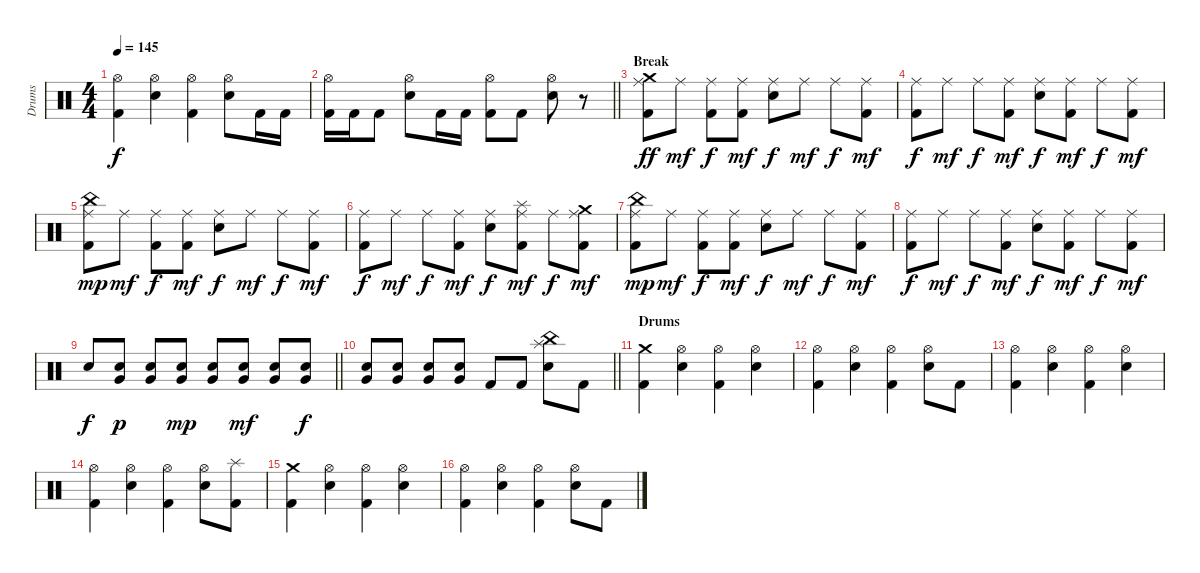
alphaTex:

\track ("Drums" "Drums") {instrument percussion}
\staff {score}
\articulation defaults
\ts (4 4)
\tempo 145
\clef neutral
\ks c
("Hi-Hat (open)" "Kick (hit) 2").4{dy f} ("Hi-Hat (open)" "Electric Snare (hit)").4 ("Hi-Hat (open)" "Kick (hit) 2").4 ("Hi-Hat (open)" "Electric Snare (hit)").8 "Kick (hit) 2".16 "Kick (hit) 2".16 |
\barLineRight lightlight
("Hi-Hat (open)" "Kick (hit) 2").16 "Kick (hit) 2".16 "Kick (hit) 2".8 ("Hi-Hat (open)" "Electric Snare (hit)").8 "Kick (hit) 2".16 "Kick (hit) 2".16 ("Hi-Hat (open)" "Kick (hit) 2").8 "Kick (hit) 2".8 ("Hi-Hat (open)" "Electric Snare (hit)").8 r.8 |
\section ("" "Break")
("Crash medium (hit)" "Ride (middle)" "Kick (hit) 2").8{dy ff} "Ride (middle)".8{dy mf} ("Ride (middle)" "Kick (hit) 2").8{dy f} ("Ride (middle)" "Kick (hit) 2").8{dy mf} ("Ride (middle)" "Electric Snare (hit)").8{dy f} "Ride (middle)".8{dy mf} "Ride (middle)".8{dy f} ("Ride (middle)" "Kick (hit) 2").8{dy mf} |
("Ride (middle)" "Kick (hit) 2").8{dy f} "Ride (middle)".8{dy mf} "Ride (middle)".8{dy f} ("Ride (middle)" "Kick (hit) 2").8{dy mf} ("Ride (middle)" "Electric Snare (hit)").8{dy f} ("Ride (middle)" "Kick (hit) 2").8{dy mf} "Ride (middle)".8{dy f} ("Ride (middle)" "Kick (hit) 2").8{dy mf} |
("China (hit)" "Ride (middle)" "Kick (hit) 2").8{dy mp} "Ride (middle)".8{dy mf} ("Ride (middle)" "Kick (hit) 2").8{dy f} ("Ride (middle)" "Kick (hit) 2").8{dy mf} ("Ride (middle)" "Electric Snare (hit)").8{dy f} "Ride (middle)".8{dy mf} "Ride (middle)".8{dy f} ("Ride (middle)" "Kick (hit) 2").8{dy mf} |
("Ride (middle)" "Kick (hit) 2").8{dy f} "Ride (middle)".8{dy mf} "Ride (middle)".8{dy f} ("Ride (middle)" "Kick (hit) 2").8{dy mf} ("Ride (middle)" "Electric Snare (hit)").8{dy f} ("Splash (hit)" "Ride (middle)" "Kick (hit) 2").8{dy mf} "Ride (middle)".8{dy f} ("Crash medium (hit)" "Ride (middle)" "Kick (hit) 2").8{dy mf} |
("China (hit)" "Ride (middle)" "Kick (hit) 2").8{dy mp} "Ride (middle)".8{dy mf} ("Ride (middle)" "Kick (hit) 2").8{dy f} ("Ride (middle)" "Kick (hit) 2").8{dy mf} ("Ride (middle)" "Electric Snare (hit)").8{dy f} "Ride (middle)".8{dy mf} "Ride (middle)".8{dy f} ("Ride (middle)" "Kick (hit) 2").8{dy mf} |
("Ride (middle)" "Kick (hit) 2").8{dy f} "Ride (middle)".8{dy mf} "Ride (middle)".8{dy f} ("Ride (middle)" "Kick (hit) 2").8{dy mf} ("Ride (middle)" "Electric Snare (hit)").8{dy f} ("Ride (middle)" "Kick (hit) 2").8{dy mf} "Ride (middle)".8{dy f} ("Ride (middle)" "Kick (hit) 2").8{dy mf} |
\barLineRight lightlight "Electric Snare (hit)".8{dy f}
("Very Low Tom (hit)" "Electric Snare (hit)").8{dy p} ("Very Low Tom (hit)" "Electric Snare (hit)").8 ("Very Low Tom (hit)" "Electric Snare (hit)").8{dy mp} ("Very Low Tom (hit)" "Electric Snare (hit)").8 ("Very Low Tom (hit)" "Electric Snare (hit)").8{dy mf} ("Very Low Tom (hit)" "Electric Snare (hit)").8 ("Very Low Tom (hit)" "Electric Snare (hit)").8{dy f} |
\barLineRight lightlight
("Very Low Tom (hit)" "Electric Snare (hit)").8 ("Very Low Tom (hit)" "Electric Snare (hit)").8 ("Very Low Tom (hit)" "Electric Snare (hit)").8 ("Very Low Tom (hit)" "Electric Snare (hit)").8 "Kick (hit) 2".8 "Kick (hit) 2".8 ("Splash (hit)" "China (hit)" "Electric Snare (hit)").8 "Kick (hit) 2".8 |
\section ("" "Drums")
("Crash medium (hit)" "Kick (hit) 2").4 ("Hi-Hat (open)" "Electric Snare (hit)").4 ("Hi-Hat (open)" "Kick (hit) 2").4 ("Hi-Hat (open)" "Electric Snare (hit)").4 |
("Hi-Hat (open)" "Kick (hit) 2").4 ("Hi-Hat (open)" "Electric Snare (hit)").4 ("Hi-Hat (open)" "Kick (hit) 2").4 ("Hi-Hat (open)" "Electric Snare (hit)").8 "Kick (hit) 2".8 |
("Hi-Hat (open)" "Kick (hit) 2").4 ("Hi-Hat (open)" "Electric Snare (hit)").4 ("Hi-Hat (open)" "Kick (hit) 2").4 ("Hi-Hat (open)" "Electric Snare (hit)").4 |
("Hi-Hat (open)" "Kick (hit) 2").4 ("Hi-Hat (open)" "Electric Snare (hit)").4 ("Hi-Hat (open)" "Kick (hit) 2").4 ("Hi-Hat (open)" "Electric Snare (hit)").8 ("Splash (hit)" "Kick (hit) 2").8 |
("Crash medium (hit)" "Kick (hit) 2").4 ("Hi-Hat (open)" "Electric Snare (hit)").4 ("Hi-Hat (open)" "Kick (hit) 2").4 ("Hi-Hat (open)" "Electric Snare (hit)").4 |
("Hi-Hat (open)" "Kick (hit) 2").4 ("Hi-Hat (open)" "Electric Snare (hit)").4 ("Hi-Hat (open)" "Kick (hit) 2").4 ("Hi-Hat (open)" "Electric Snare (hit)").8 "Kick (hit) 2".8
